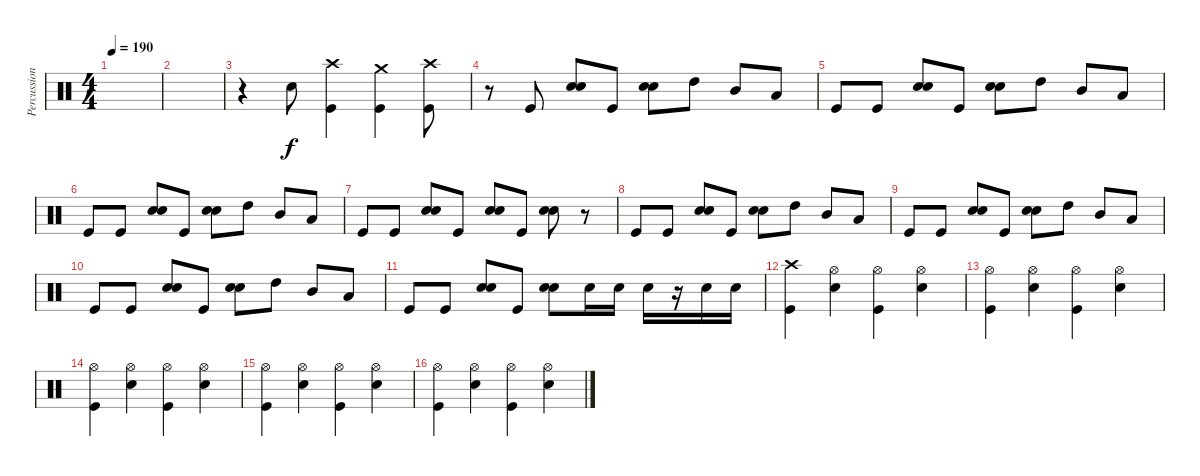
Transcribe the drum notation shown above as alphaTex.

\track ("Percussion" "Percussion") {mute instrument percussion}
\staff {score}
\articulation defaults
\ts (4 4)
\tempo 190
\clef neutral
\ks c
|
|
r.4 "Snare (hit) 2".8 ("Crash high (hit)" "Kick (hit)").4 ("Crash medium (hit)" "Kick (hit)").4 ("Crash high (hit)" "Kick (hit)").8 |
r.8 "Kick (hit)".8 ("Snare (hit) 2" "Snare (hit) 2").8 "Kick (hit)".8 ("Snare (hit) 2" "Snare (hit) 2").8 "High Tom (hit)".8 "Mid Tom (hit)".8 "Low Tom (hit)".8 |
"Kick (hit)".8 "Kick (hit)".8 ("Snare (hit) 2" "Snare (hit) 2").8 "Kick (hit)".8 ("Snare (hit) 2" "Snare (hit) 2").8 "High Tom (hit)".8 "Mid Tom (hit)".8 "Low Tom (hit)".8 |
"Kick (hit)".8 "Kick (hit)".8 ("Snare (hit) 2" "Snare (hit) 2").8 "Kick (hit)".8 ("Snare (hit) 2" "Snare (hit) 2").8 "High Tom (hit)".8 "Mid Tom (hit)".8 "Low Tom (hit)".8 |
"Kick (hit)".8 "Kick (hit)".8 ("Snare (hit) 2" "Snare (hit) 2").8 "Kick (hit)".8 ("Snare (hit) 2" "Snare (hit) 2").8 "Kick (hit)".8 ("Snare (hit) 2" "Snare (hit) 2").8 r.8 |
"Kick (hit)".8 "Kick (hit)".8 ("Snare (hit) 2" "Snare (hit) 2").8 "Kick (hit)".8 ("Snare (hit) 2" "Snare (hit) 2").8 "High Tom (hit)".8 "Mid Tom (hit)".8 "Low Tom (hit)".8 |
"Kick (hit)".8 "Kick (hit)".8 ("Snare (hit) 2" "Snare (hit) 2").8 "Kick (hit)".8 ("Snare (hit) 2" "Snare (hit) 2").8 "High Tom (hit)".8 "Mid Tom (hit)".8 "Low Tom (hit)".8 |
"Kick (hit)".8 "Kick (hit)".8 ("Snare (hit) 2" "Snare (hit) 2").8 "Kick (hit)".8 ("Snare (hit) 2" "Snare (hit) 2").8 "High Tom (hit)".8 "Mid Tom (hit)".8 "Low Tom (hit)".8 |
"Kick (hit)".8 "Kick (hit)".8 ("Snare (hit) 2" "Snare (hit) 2").8 "Kick (hit)".8 ("Snare (hit) 2" "Snare (hit) 2").8 "Snare (hit) 2".16 "Snare (hit) 2".16 "Snare (hit) 2".16 r.16 "Snare (hit) 2".16 "Snare (hit) 2".16 |
("Crash high (hit)" "Kick (hit)").4 ("Hi-Hat (open)" "Snare (hit) 2").4 ("Hi-Hat (open)" "Kick (hit)").4 ("Hi-Hat (open)" "Snare (hit) 2").4 |
("Hi-Hat (open)" "Kick (hit)").4 ("Hi-Hat (open)" "Snare (hit) 2").4 ("Hi-Hat (open)" "Kick (hit)").4 ("Hi-Hat (open)" "Snare (hit) 2").4 |
("Hi-Hat (open)" "Kick (hit)").4 ("Hi-Hat (open)" "Snare (hit) 2").4 ("Hi-Hat (open)" "Kick (hit)").4 ("Hi-Hat (open)" "Snare (hit) 2").4 |
("Hi-Hat (open)" "Kick (hit)").4 ("Hi-Hat (open)" "Snare (hit) 2").4 ("Hi-Hat (open)" "Kick (hit)").4 ("Hi-Hat (open)" "Snare (hit) 2").4 |
("Hi-Hat (open)" "Kick (hit)").4 ("Hi-Hat (open)" "Snare (hit) 2").4 ("Hi-Hat (open)" "Kick (hit)").4 ("Hi-Hat (open)" "Snare (hit) 2").4
